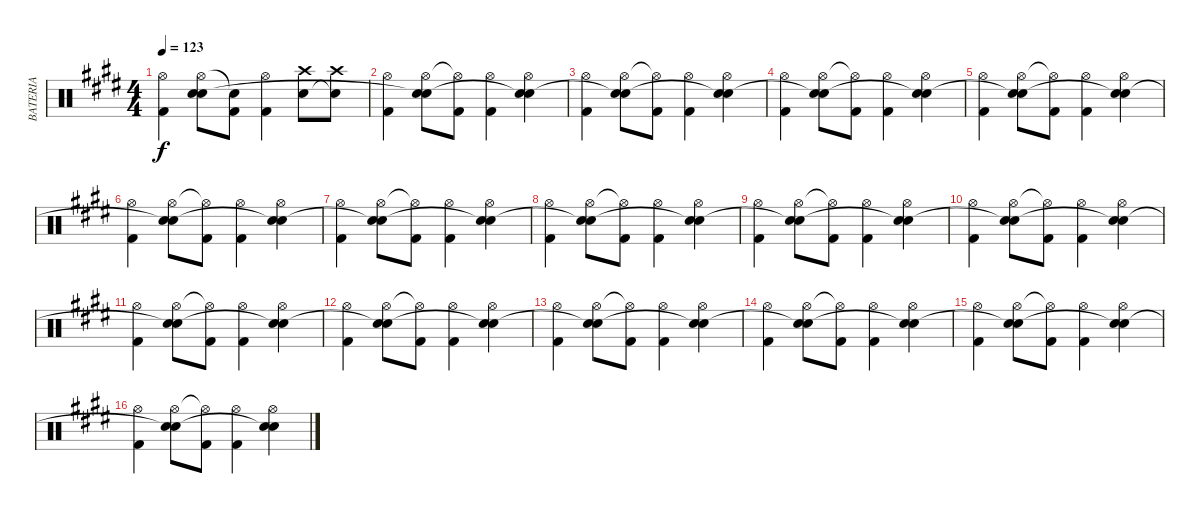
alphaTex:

\track ("BATERIA" "BATERIA") {instrument percussion}
\staff {score}
\articulation defaults
\ts (4 4)
\tempo 123
\clef neutral
\ks c#minor
("Hi-Hat (open)" "Kick (hit) 2").4{dy f} ("Hi-Hat (open)" "Snare (hit) 2" "Snare (hit)"{t}).8 ("Snare (hit)"{t} "Kick (hit) 2").8 ("Hi-Hat (open)" "Kick (hit) 2").4 ("Crash high (hit)" "Snare (hit) 2").8 ("Crash high (hit)" "Snare (hit)"{t}).8 |
("Hi-Hat (open)" "Kick (hit) 2").4 ("Hi-Hat (open)" "Snare (hit) 2" "Snare (hit)"{t}).8 ("Hi-Hat (open)"{t} "Kick (hit) 2").8 ("Hi-Hat (open)" "Kick (hit) 2").4 ("Hi-Hat (open)" "Snare (hit) 2" "Snare (hit)"{t}).4 |
("Hi-Hat (open)" "Kick (hit) 2").4 ("Hi-Hat (open)" "Snare (hit) 2" "Snare (hit)"{t}).8 ("Hi-Hat (open)"{t} "Kick (hit) 2").8 ("Hi-Hat (open)" "Kick (hit) 2").4 ("Hi-Hat (open)" "Snare (hit) 2" "Snare (hit)"{t}).4 |
("Hi-Hat (open)" "Kick (hit) 2").4 ("Hi-Hat (open)" "Snare (hit) 2" "Snare (hit)"{t}).8 ("Hi-Hat (open)"{t} "Kick (hit) 2").8 ("Hi-Hat (open)" "Kick (hit) 2").4 ("Hi-Hat (open)" "Snare (hit) 2" "Snare (hit)"{t}).4 |
("Hi-Hat (open)" "Kick (hit) 2").4 ("Hi-Hat (open)" "Snare (hit) 2" "Snare (hit)"{t}).8 ("Hi-Hat (open)"{t} "Kick (hit) 2").8 ("Hi-Hat (open)" "Kick (hit) 2").4 ("Hi-Hat (open)" "Snare (hit) 2" "Snare (hit)"{t}).4 |
("Hi-Hat (open)" "Kick (hit) 2").4 ("Hi-Hat (open)" "Snare (hit) 2" "Snare (hit)"{t}).8 ("Hi-Hat (open)"{t} "Kick (hit) 2").8 ("Hi-Hat (open)" "Kick (hit) 2").4 ("Hi-Hat (open)" "Snare (hit) 2" "Snare (hit)"{t}).4 |
("Hi-Hat (open)" "Kick (hit) 2").4 ("Hi-Hat (open)" "Snare (hit) 2" "Snare (hit)"{t}).8 ("Hi-Hat (open)"{t} "Kick (hit) 2").8 ("Hi-Hat (open)" "Kick (hit) 2").4 ("Hi-Hat (open)" "Snare (hit) 2" "Snare (hit)"{t}).4 |
("Hi-Hat (open)" "Kick (hit) 2").4 ("Hi-Hat (open)" "Snare (hit) 2" "Snare (hit)"{t}).8 ("Hi-Hat (open)"{t} "Kick (hit) 2").8 ("Hi-Hat (open)" "Kick (hit) 2").4 ("Hi-Hat (open)" "Snare (hit) 2" "Snare (hit)"{t}).4 |
("Hi-Hat (open)" "Kick (hit) 2").4 ("Hi-Hat (open)" "Snare (hit) 2" "Snare (hit)"{t}).8 ("Hi-Hat (open)"{t} "Kick (hit) 2").8 ("Hi-Hat (open)" "Kick (hit) 2").4 ("Hi-Hat (open)" "Snare (hit) 2" "Snare (hit)"{t}).4 |
("Hi-Hat (open)" "Kick (hit) 2").4 ("Hi-Hat (open)" "Snare (hit) 2" "Snare (hit)"{t}).8 ("Hi-Hat (open)"{t} "Kick (hit) 2").8 ("Hi-Hat (open)" "Kick (hit) 2").4 ("Hi-Hat (open)" "Snare (hit) 2" "Snare (hit)"{t}).4 |
("Hi-Hat (open)" "Kick (hit) 2").4 ("Hi-Hat (open)" "Snare (hit) 2" "Snare (hit)"{t}).8 ("Hi-Hat (open)"{t} "Kick (hit) 2").8 ("Hi-Hat (open)" "Kick (hit) 2").4 ("Hi-Hat (open)" "Snare (hit) 2" "Snare (hit)"{t}).4 |
("Hi-Hat (open)" "Kick (hit) 2").4 ("Hi-Hat (open)" "Snare (hit) 2" "Snare (hit)"{t}).8 ("Hi-Hat (open)"{t} "Kick (hit) 2").8 ("Hi-Hat (open)" "Kick (hit) 2").4 ("Hi-Hat (open)" "Snare (hit) 2" "Snare (hit)"{t}).4 |
("Hi-Hat (open)" "Kick (hit) 2").4 ("Hi-Hat (open)" "Snare (hit) 2" "Snare (hit)"{t}).8 ("Hi-Hat (open)"{t} "Kick (hit) 2").8 ("Hi-Hat (open)" "Kick (hit) 2").4 ("Hi-Hat (open)" "Snare (hit) 2" "Snare (hit)"{t}).4 |
("Hi-Hat (open)" "Kick (hit) 2").4 ("Hi-Hat (open)" "Snare (hit) 2" "Snare (hit)"{t}).8 ("Hi-Hat (open)"{t} "Kick (hit) 2").8 ("Hi-Hat (open)" "Kick (hit) 2").4 ("Hi-Hat (open)" "Snare (hit) 2" "Snare (hit)"{t}).4 |
("Hi-Hat (open)" "Kick (hit) 2").4 ("Hi-Hat (open)" "Snare (hit) 2" "Snare (hit)"{t}).8 ("Hi-Hat (open)"{t} "Kick (hit) 2").8 ("Hi-Hat (open)" "Kick (hit) 2").4 ("Hi-Hat (open)" "Snare (hit) 2" "Snare (hit)"{t}).4 |
("Hi-Hat (open)" "Kick (hit) 2").4 ("Hi-Hat (open)" "Snare (hit) 2" "Snare (hit)"{t}).8 ("Hi-Hat (open)"{t} "Kick (hit) 2").8 ("Hi-Hat (open)" "Kick (hit) 2").4 ("Hi-Hat (open)" "Snare (hit) 2" "Snare (hit)"{t}).4
